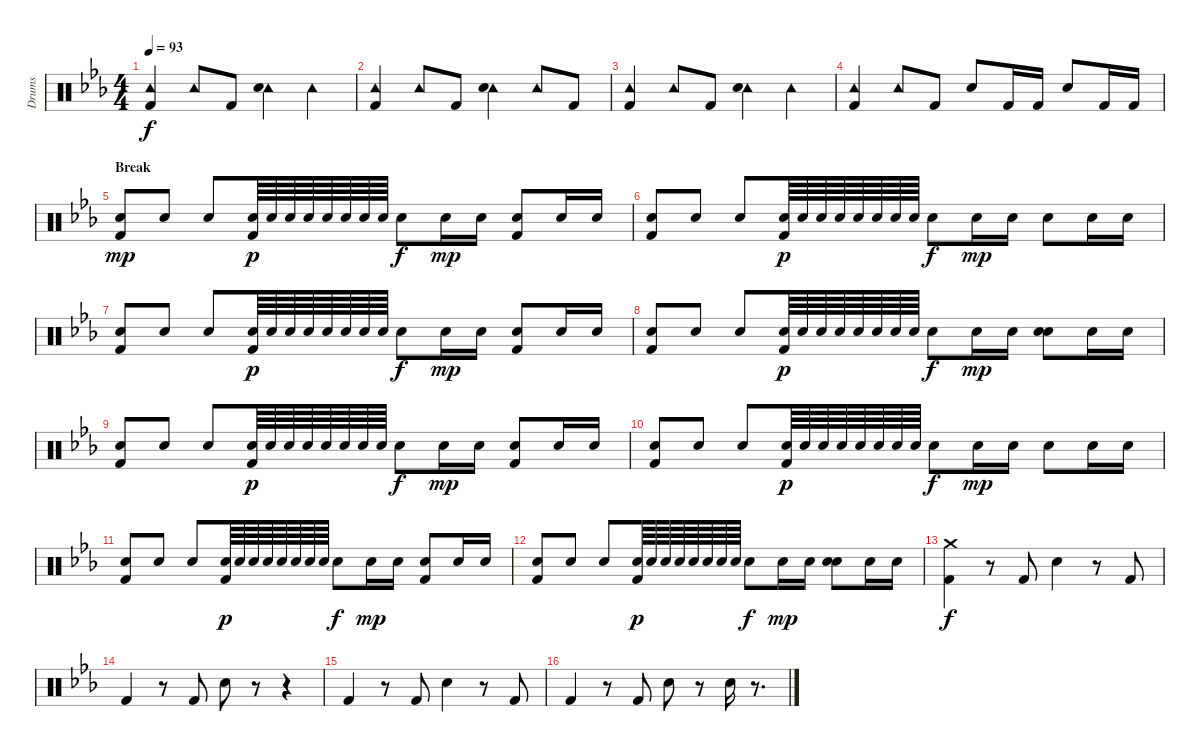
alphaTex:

\track ("Drums" "Drums") {instrument percussion}
\staff {score}
\articulation defaults
\ts (4 4)
\tempo 93
\clef neutral
\ks eb
("Tambourine (hit)" "Kick (hit) 2").4{dy f} "Tambourine (hit)".8 "Kick (hit) 2".8 ("Tambourine (hit)" "Snare (hit) 2").4 "Tambourine (hit)".4 |
("Tambourine (hit)" "Kick (hit) 2").4 "Tambourine (hit)".8 "Kick (hit) 2".8 ("Tambourine (hit)" "Snare (hit) 2").4 "Tambourine (hit)".8 "Kick (hit) 2".8 |
("Tambourine (hit)" "Kick (hit) 2").4 "Tambourine (hit)".8 "Kick (hit) 2".8 ("Tambourine (hit)" "Snare (hit) 2").4 "Tambourine (hit)".4 |
("Tambourine (hit)" "Kick (hit) 2").4 "Tambourine (hit)".8 "Kick (hit) 2".8 "Snare (hit) 2".8 "Kick (hit) 2".16 "Kick (hit) 2".16 "Snare (hit) 2".8 "Kick (hit) 2".16 "Kick (hit) 2".16 |
\section ("" "Break")
("Electric Snare (hit)" "Kick (hit) 2").8{dy mp} "Electric Snare (hit)".8 "Electric Snare (hit)".8 ("Electric Snare (hit)" "Kick (hit) 2").64{dy p} "Electric Snare (hit)".64 "Electric Snare (hit)".64 "Electric Snare (hit)".64 "Electric Snare (hit)".64 "Electric Snare (hit)".64 "Electric Snare (hit)".64 "Electric Snare (hit)".64 "Snare (hit) 2".8{dy f} "Electric Snare (hit)".16{dy mp} "Electric Snare (hit)".16 ("Electric Snare (hit)" "Kick (hit) 2").8 "Electric Snare (hit)".16 "Electric Snare (hit)".16 |
("Electric Snare (hit)" "Kick (hit) 2").8 "Electric Snare (hit)".8 "Electric Snare (hit)".8 ("Electric Snare (hit)" "Kick (hit) 2").64{dy p} "Electric Snare (hit)".64 "Electric Snare (hit)".64 "Electric Snare (hit)".64 "Electric Snare (hit)".64 "Electric Snare (hit)".64 "Electric Snare (hit)".64 "Electric Snare (hit)".64 "Snare (hit) 2".8{dy f} "Electric Snare (hit)".16{dy mp} "Electric Snare (hit)".16 "Electric Snare (hit)".8 "Electric Snare (hit)".16 "Electric Snare (hit)".16 |
("Electric Snare (hit)" "Kick (hit) 2").8 "Electric Snare (hit)".8 "Electric Snare (hit)".8 ("Electric Snare (hit)" "Kick (hit) 2").64{dy p} "Electric Snare (hit)".64 "Electric Snare (hit)".64 "Electric Snare (hit)".64 "Electric Snare (hit)".64 "Electric Snare (hit)".64 "Electric Snare (hit)".64 "Electric Snare (hit)".64 "Snare (hit) 2".8{dy f} "Electric Snare (hit)".16{dy mp} "Electric Snare (hit)".16 ("Electric Snare (hit)" "Kick (hit) 2").8 "Electric Snare (hit)".16 "Electric Snare (hit)".16 |
("Electric Snare (hit)" "Kick (hit) 2").8 "Electric Snare (hit)".8 "Electric Snare (hit)".8 ("Electric Snare (hit)" "Kick (hit) 2").64{dy p} "Electric Snare (hit)".64 "Electric Snare (hit)".64 "Electric Snare (hit)".64 "Electric Snare (hit)".64 "Electric Snare (hit)".64 "Electric Snare (hit)".64 "Electric Snare (hit)".64 "Snare (hit) 2".8{dy f} "Electric Snare (hit)".16{dy mp} "Electric Snare (hit)".16 ("Electric Snare (hit)" "Snare (hit) 2").8 "Electric Snare (hit)".16 "Electric Snare (hit)".16 |
("Electric Snare (hit)" "Kick (hit) 2").8 "Electric Snare (hit)".8 "Electric Snare (hit)".8 ("Electric Snare (hit)" "Kick (hit) 2").64{dy p} "Electric Snare (hit)".64 "Electric Snare (hit)".64 "Electric Snare (hit)".64 "Electric Snare (hit)".64 "Electric Snare (hit)".64 "Electric Snare (hit)".64 "Electric Snare (hit)".64 "Snare (hit) 2".8{dy f} "Electric Snare (hit)".16{dy mp} "Electric Snare (hit)".16 ("Electric Snare (hit)" "Kick (hit) 2").8 "Electric Snare (hit)".16 "Electric Snare (hit)".16 |
("Electric Snare (hit)" "Kick (hit) 2").8 "Electric Snare (hit)".8 "Electric Snare (hit)".8 ("Electric Snare (hit)" "Kick (hit) 2").64{dy p} "Electric Snare (hit)".64 "Electric Snare (hit)".64 "Electric Snare (hit)".64 "Electric Snare (hit)".64 "Electric Snare (hit)".64 "Electric Snare (hit)".64 "Electric Snare (hit)".64 "Snare (hit) 2".8{dy f} "Electric Snare (hit)".16{dy mp} "Electric Snare (hit)".16 "Electric Snare (hit)".8 "Electric Snare (hit)".16 "Electric Snare (hit)".16 |
("Electric Snare (hit)" "Kick (hit) 2").8 "Electric Snare (hit)".8 "Electric Snare (hit)".8 ("Electric Snare (hit)" "Kick (hit) 2").64{dy p} "Electric Snare (hit)".64 "Electric Snare (hit)".64 "Electric Snare (hit)".64 "Electric Snare (hit)".64 "Electric Snare (hit)".64 "Electric Snare (hit)".64 "Electric Snare (hit)".64 "Snare (hit) 2".8{dy f} "Electric Snare (hit)".16{dy mp} "Electric Snare (hit)".16 ("Electric Snare (hit)" "Kick (hit) 2").8 "Electric Snare (hit)".16 "Electric Snare (hit)".16 |
("Electric Snare (hit)" "Kick (hit) 2").8 "Electric Snare (hit)".8 "Electric Snare (hit)".8 ("Electric Snare (hit)" "Kick (hit) 2").64{dy p} "Electric Snare (hit)".64 "Electric Snare (hit)".64 "Electric Snare (hit)".64 "Electric Snare (hit)".64 "Electric Snare (hit)".64 "Electric Snare (hit)".64 "Electric Snare (hit)".64 "Snare (hit) 2".8{dy f} "Electric Snare (hit)".16{dy mp} "Electric Snare (hit)".16 ("Electric Snare (hit)" "Snare (hit) 2").8 "Electric Snare (hit)".16 "Electric Snare (hit)".16 |
\section ("" "")
("Crash medium (hit)" "Kick (hit) 2").4{dy f} r.8 "Kick (hit) 2".8 "Snare (hit) 2".4 r.8 "Kick (hit) 2".8 |
"Kick (hit) 2".4 r.8 "Kick (hit) 2".8 "Snare (hit) 2".8 r.8 r.4 |
"Kick (hit) 2".4 r.8 "Kick (hit) 2".8 "Snare (hit) 2".4 r.8 "Kick (hit) 2".8 |
"Kick (hit) 2".4 r.8 "Kick (hit) 2".8 "Snare (hit) 2".8 r.8 "Snare (hit) 2".16 r.8{d}
